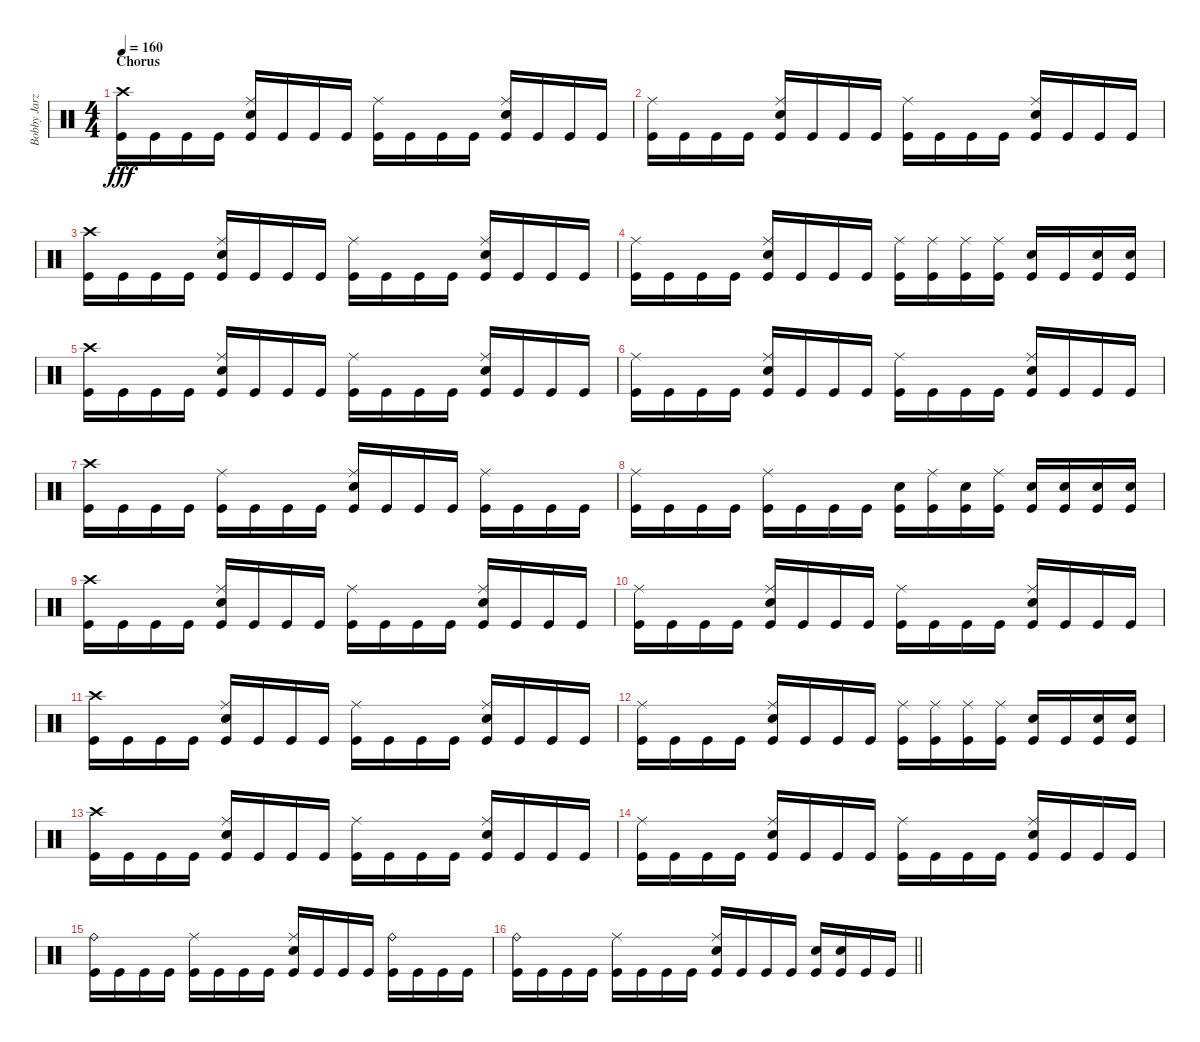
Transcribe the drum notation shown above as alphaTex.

\track ("Bobby Jarzombek" "Bobby Jarz") {instrument percussion}
\staff {score}
\articulation defaults
\ts (4 4)
\section ("" "Chorus")
\tempo 160
\clef neutral
\ks c
("Crash high (hit)" "Kick (hit)").16{dy fff} "Kick (hit)".16 "Kick (hit)".16 "Kick (hit)".16 ("Ride (middle)" "Electric Snare (hit)" "Kick (hit)").16 "Kick (hit)".16 "Kick (hit)".16 "Kick (hit)".16 ("Ride (middle)" "Kick (hit)").16 "Kick (hit)".16 "Kick (hit)".16 "Kick (hit)".16 ("Ride (middle)" "Electric Snare (hit)" "Kick (hit)").16 "Kick (hit)".16 "Kick (hit)".16 "Kick (hit)".16 |
("Ride (middle)" "Kick (hit)").16 "Kick (hit)".16 "Kick (hit)".16 "Kick (hit)".16 ("Ride (middle)" "Electric Snare (hit)" "Kick (hit)").16 "Kick (hit)".16 "Kick (hit)".16 "Kick (hit)".16 ("Ride (middle)" "Kick (hit)").16 "Kick (hit)".16 "Kick (hit)".16 "Kick (hit)".16 ("Ride (middle)" "Electric Snare (hit)" "Kick (hit)").16 "Kick (hit)".16 "Kick (hit)".16 "Kick (hit)".16 |
("Crash high (hit)" "Kick (hit)").16 "Kick (hit)".16 "Kick (hit)".16 "Kick (hit)".16 ("Ride (middle)" "Electric Snare (hit)" "Kick (hit)").16 "Kick (hit)".16 "Kick (hit)".16 "Kick (hit)".16 ("Ride (middle)" "Kick (hit)").16 "Kick (hit)".16 "Kick (hit)".16 "Kick (hit)".16 ("Ride (middle)" "Electric Snare (hit)" "Kick (hit)").16 "Kick (hit)".16 "Kick (hit)".16 "Kick (hit)".16 |
("Ride (middle)" "Kick (hit)").16 "Kick (hit)".16 "Kick (hit)".16 "Kick (hit)".16 ("Ride (middle)" "Electric Snare (hit)" "Kick (hit)").16 "Kick (hit)".16 "Kick (hit)".16 "Kick (hit)".16 ("Ride (middle)" "Kick (hit)").16 ("Ride (middle)" "Kick (hit)").16 ("Ride (middle)" "Kick (hit)").16 ("Ride (middle)" "Kick (hit)").16 ("Electric Snare (hit)" "Kick (hit)").16 "Kick (hit)".16 ("Electric Snare (hit)" "Kick (hit)").16 ("Electric Snare (hit)" "Kick (hit)").16 |
("Crash high (hit)" "Kick (hit)").16 "Kick (hit)".16 "Kick (hit)".16 "Kick (hit)".16 ("Ride (middle)" "Electric Snare (hit)" "Kick (hit)").16 "Kick (hit)".16 "Kick (hit)".16 "Kick (hit)".16 ("Ride (middle)" "Kick (hit)").16 "Kick (hit)".16 "Kick (hit)".16 "Kick (hit)".16 ("Ride (middle)" "Electric Snare (hit)" "Kick (hit)").16 "Kick (hit)".16 "Kick (hit)".16 "Kick (hit)".16 |
("Ride (middle)" "Kick (hit)").16 "Kick (hit)".16 "Kick (hit)".16 "Kick (hit)".16 ("Ride (middle)" "Electric Snare (hit)" "Kick (hit)").16 "Kick (hit)".16 "Kick (hit)".16 "Kick (hit)".16 ("Ride (middle)" "Kick (hit)").16 "Kick (hit)".16 "Kick (hit)".16 "Kick (hit)".16 ("Ride (middle)" "Electric Snare (hit)" "Kick (hit)").16 "Kick (hit)".16 "Kick (hit)".16 "Kick (hit)".16 |
("Crash high (hit)" "Kick (hit)").16 "Kick (hit)".16 "Kick (hit)".16 "Kick (hit)".16 ("Ride (middle)" "Kick (hit)").16 "Kick (hit)".16 "Kick (hit)".16 "Kick (hit)".16 ("Ride (middle)" "Electric Snare (hit)" "Kick (hit)").16 "Kick (hit)".16 "Kick (hit)".16 "Kick (hit)".16 ("Ride (middle)" "Kick (hit)").16 "Kick (hit)".16 "Kick (hit)".16 "Kick (hit)".16 |
("Ride (middle)" "Kick (hit)").16 "Kick (hit)".16 "Kick (hit)".16 "Kick (hit)".16 ("Ride (middle)" "Kick (hit)").16 "Kick (hit)".16 "Kick (hit)".16 "Kick (hit)".16 ("Electric Snare (hit)" "Kick (hit)").16 ("Ride (middle)" "Kick (hit)").16 ("Electric Snare (hit)" "Kick (hit)").16 ("Ride (middle)" "Kick (hit)").16 ("Electric Snare (hit)" "Kick (hit)").16 ("Electric Snare (hit)" "Kick (hit)").16 ("Electric Snare (hit)" "Kick (hit)").16 ("Electric Snare (hit)" "Kick (hit)").16 |
("Crash high (hit)" "Kick (hit)").16 "Kick (hit)".16 "Kick (hit)".16 "Kick (hit)".16 ("Ride (middle)" "Electric Snare (hit)" "Kick (hit)").16 "Kick (hit)".16 "Kick (hit)".16 "Kick (hit)".16 ("Ride (middle)" "Kick (hit)").16 "Kick (hit)".16 "Kick (hit)".16 "Kick (hit)".16 ("Ride (middle)" "Electric Snare (hit)" "Kick (hit)").16 "Kick (hit)".16 "Kick (hit)".16 "Kick (hit)".16 |
("Ride (middle)" "Kick (hit)").16 "Kick (hit)".16 "Kick (hit)".16 "Kick (hit)".16 ("Ride (middle)" "Electric Snare (hit)" "Kick (hit)").16 "Kick (hit)".16 "Kick (hit)".16 "Kick (hit)".16 ("Ride (middle)" "Kick (hit)").16 "Kick (hit)".16 "Kick (hit)".16 "Kick (hit)".16 ("Ride (middle)" "Electric Snare (hit)" "Kick (hit)").16 "Kick (hit)".16 "Kick (hit)".16 "Kick (hit)".16 |
("Crash high (hit)" "Kick (hit)").16 "Kick (hit)".16 "Kick (hit)".16 "Kick (hit)".16 ("Ride (middle)" "Electric Snare (hit)" "Kick (hit)").16 "Kick (hit)".16 "Kick (hit)".16 "Kick (hit)".16 ("Ride (middle)" "Kick (hit)").16 "Kick (hit)".16 "Kick (hit)".16 "Kick (hit)".16 ("Ride (middle)" "Electric Snare (hit)" "Kick (hit)").16 "Kick (hit)".16 "Kick (hit)".16 "Kick (hit)".16 |
("Ride (middle)" "Kick (hit)").16 "Kick (hit)".16 "Kick (hit)".16 "Kick (hit)".16 ("Ride (middle)" "Electric Snare (hit)" "Kick (hit)").16 "Kick (hit)".16 "Kick (hit)".16 "Kick (hit)".16 ("Ride (middle)" "Kick (hit)").16 ("Ride (middle)" "Kick (hit)").16 ("Ride (middle)" "Kick (hit)").16 ("Ride (middle)" "Kick (hit)").16 ("Electric Snare (hit)" "Kick (hit)").16 "Kick (hit)".16 ("Electric Snare (hit)" "Kick (hit)").16 ("Electric Snare (hit)" "Kick (hit)").16 |
("Crash high (hit)" "Kick (hit)").16 "Kick (hit)".16 "Kick (hit)".16 "Kick (hit)".16 ("Ride (middle)" "Electric Snare (hit)" "Kick (hit)").16 "Kick (hit)".16 "Kick (hit)".16 "Kick (hit)".16 ("Ride (middle)" "Kick (hit)").16 "Kick (hit)".16 "Kick (hit)".16 "Kick (hit)".16 ("Ride (middle)" "Electric Snare (hit)" "Kick (hit)").16 "Kick (hit)".16 "Kick (hit)".16 "Kick (hit)".16 |
("Ride (middle)" "Kick (hit)").16 "Kick (hit)".16 "Kick (hit)".16 "Kick (hit)".16 ("Ride (middle)" "Electric Snare (hit)" "Kick (hit)").16 "Kick (hit)".16 "Kick (hit)".16 "Kick (hit)".16 ("Ride (middle)" "Kick (hit)").16 "Kick (hit)".16 "Kick (hit)".16 "Kick (hit)".16 ("Ride (middle)" "Electric Snare (hit)" "Kick (hit)").16 "Kick (hit)".16 "Kick (hit)".16 "Kick (hit)".16 |
("Ride (bell)" "Kick (hit)").16 "Kick (hit)".16 "Kick (hit)".16 "Kick (hit)".16 ("Ride (middle)" "Kick (hit)").16 "Kick (hit)".16 "Kick (hit)".16 "Kick (hit)".16 ("Ride (middle)" "Electric Snare (hit)" "Kick (hit)").16 "Kick (hit)".16 "Kick (hit)".16 "Kick (hit)".16 ("Ride (bell)" "Kick (hit)").16 "Kick (hit)".16 "Kick (hit)".16 "Kick (hit)".16 |
\barLineRight lightlight
("Ride (bell)" "Kick (hit)").16 "Kick (hit)".16 "Kick (hit)".16 "Kick (hit)".16 ("Ride (middle)" "Kick (hit)").16 "Kick (hit)".16 "Kick (hit)".16 "Kick (hit)".16 ("Ride (middle)" "Electric Snare (hit)" "Kick (hit)").16 "Kick (hit)".16 "Kick (hit)".16 "Kick (hit)".16 ("Electric Snare (hit)" "Kick (hit)").16 ("Electric Snare (hit)" "Kick (hit)").16 "Kick (hit)".16 "Kick (hit)".16
